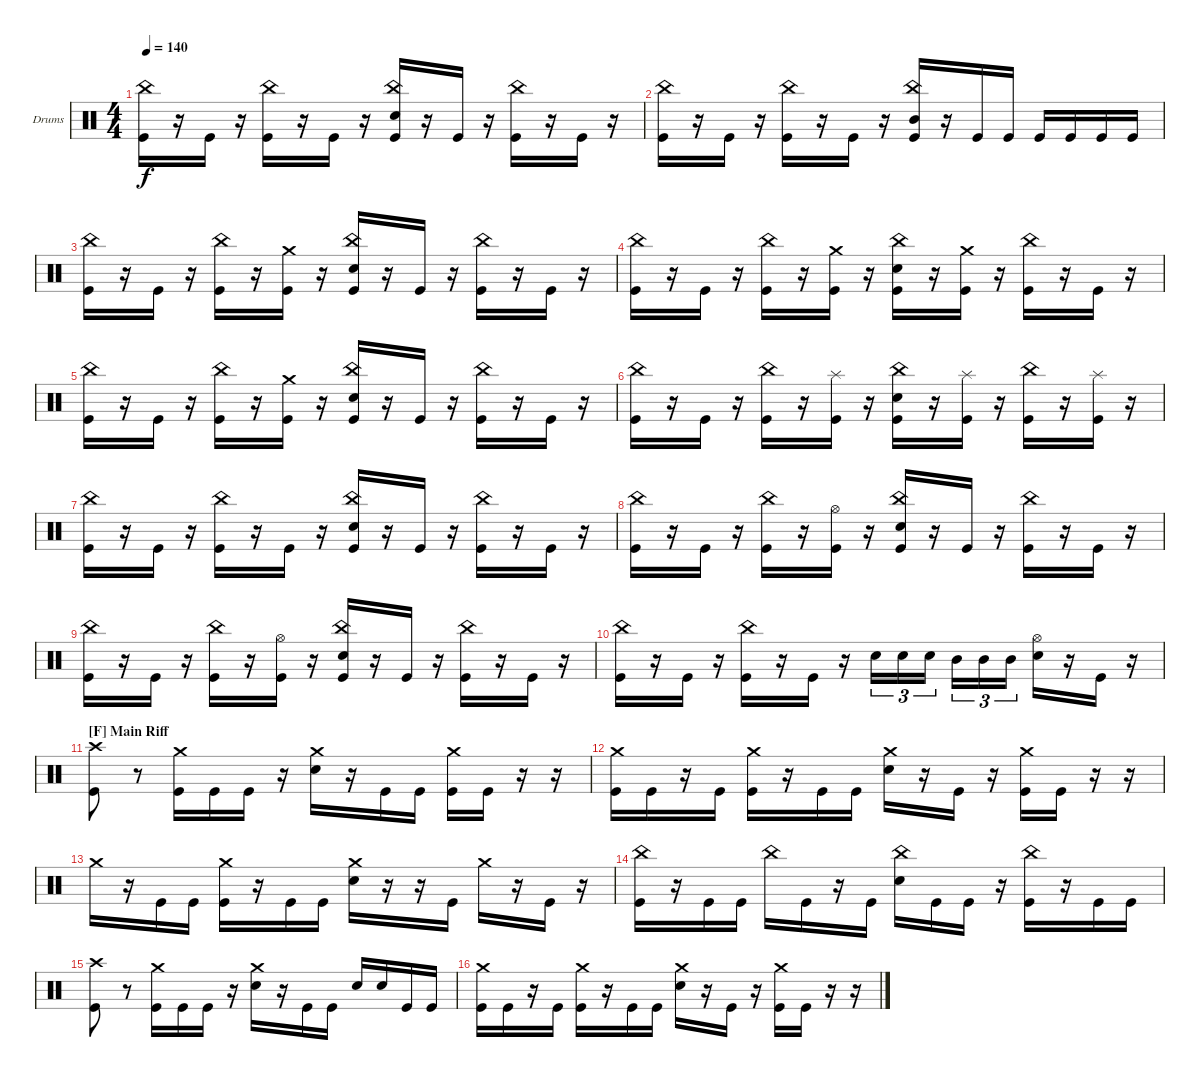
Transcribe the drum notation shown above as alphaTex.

\bracketExtendMode groupsimilarinstruments
\firstSystemTrackNameOrientation horizontal
\otherSystemsTrackNameOrientation horizontal
\track ("Drumkit" "Drums") {instrument percussion}
\staff {score}
\articulation defaults
\ts (4 4)
\tempo 140
\clef neutral
\ks c
("Kick (hit)" "China (hit)").16{dy f} r.16 "Kick (hit)".16 r.16 ("Kick (hit)" "China (hit)").16 r.16 "Kick (hit)".16 r.16 ("Kick (hit)" "China (hit)" "Snare (hit) 2").16 r.16 "Kick (hit)".16 r.16 ("Kick (hit)" "China (hit)").16 r.16 "Kick (hit)".16 r.16 |
("Kick (hit)" "China (hit)").16 r.16 "Kick (hit)".16 r.16 ("Kick (hit)" "China (hit)").16 r.16 "Kick (hit)".16 r.16 ("Kick (hit)" "China (hit)" "Mid Tom (hit)").16 r.16 "Kick (hit)".16 "Kick (hit)".16 "Kick (hit)".16 "Kick (hit)".16 "Kick (hit)".16 "Kick (hit)".16 |
("Kick (hit)" "China (hit)").16 r.16 "Kick (hit)".16 r.16 ("Kick (hit)" "China (hit)").16 r.16 ("Kick (hit)" "Crash medium (hit)").16 r.16 ("Kick (hit)" "China (hit)" "Snare (hit) 2").16 r.16 "Kick (hit)".16 r.16 ("Kick (hit)" "China (hit)").16 r.16 "Kick (hit)".16 r.16 |
("Kick (hit)" "China (hit)").16 r.16 "Kick (hit)".16 r.16 ("Kick (hit)" "China (hit)").16 r.16 ("Kick (hit)" "Crash medium (hit)").16 r.16 ("Kick (hit)" "China (hit)" "Snare (hit) 2").16 r.16 ("Kick (hit)" "Crash medium (hit)").16 r.16 ("Kick (hit)" "China (hit)").16 r.16 "Kick (hit)".16 r.16 |
("Kick (hit)" "China (hit)").16 r.16 "Kick (hit)".16 r.16 ("Kick (hit)" "China (hit)").16 r.16 ("Kick (hit)" "Crash medium (hit)").16 r.16 ("Kick (hit)" "China (hit)" "Snare (hit) 2").16 r.16 "Kick (hit)".16 r.16 ("Kick (hit)" "China (hit)").16 r.16 "Kick (hit)".16 r.16 |
("Kick (hit)" "China (hit)").16 r.16 "Kick (hit)".16 r.16 ("Kick (hit)" "China (hit)").16 r.16 ("Kick (hit)" "Splash (hit)").16 r.16 ("Kick (hit)" "China (hit)" "Snare (hit) 2").16 r.16 ("Kick (hit)" "Splash (hit)").16 r.16 ("Kick (hit)" "China (hit)").16 r.16 ("Kick (hit)" "Splash (hit)").16 r.16 |
("Kick (hit)" "China (hit)").16 r.16 "Kick (hit)".16 r.16 ("Kick (hit)" "China (hit)").16 r.16 "Kick (hit)".16 r.16 ("Kick (hit)" "China (hit)" "Snare (hit) 2").16 r.16 "Kick (hit)".16 r.16 ("Kick (hit)" "China (hit)").16 r.16 "Kick (hit)".16 r.16 |
("Kick (hit)" "China (hit)").16 r.16 "Kick (hit)".16 r.16 ("Kick (hit)" "China (hit)").16 r.16 ("Kick (hit)" "Hi-Hat (open)").16 r.16 ("Kick (hit)" "China (hit)" "Snare (hit) 2").16 r.16 "Kick (hit)".16 r.16 ("Kick (hit)" "China (hit)").16 r.16 "Kick (hit)".16 r.16 |
("Kick (hit)" "China (hit)").16 r.16 "Kick (hit)".16 r.16 ("Kick (hit)" "China (hit)").16 r.16 ("Kick (hit)" "Hi-Hat (open)").16 r.16 ("Kick (hit)" "China (hit)" "Snare (hit) 2").16 r.16 "Kick (hit)".16 r.16 ("Kick (hit)" "China (hit)").16 r.16 "Kick (hit)".16 r.16 |
("Kick (hit)" "China (hit)").16 r.16 "Kick (hit)".16 r.16 ("Kick (hit)" "China (hit)").16 r.16 "Kick (hit)".16 r.16 "Snare (hit) 2".16{tu (3 2)} "Snare (hit) 2".16{tu (3 2)} "Snare (hit) 2".16{tu (3 2)} "Mid Tom (hit)".16{tu (3 2)} "Mid Tom (hit)".16{tu (3 2)} "Mid Tom (hit)".16{tu (3 2)} ("Snare (hit) 2" "Hi-Hat (open)").16 r.16 "Kick (hit)".16 r.16 |
\section ("F" "Main Riff")
("Kick (hit)" "Crash high (hit)").8 r.8 ("Kick (hit)" "Crash medium (hit)").16 "Kick (hit)".16 "Kick (hit)".16 r.16 ("Snare (hit) 2" "Crash medium (hit)").16 r.16 "Kick (hit)".16 "Kick (hit)".16 ("Kick (hit)" "Crash medium (hit)").16 "Kick (hit)".16 r.16 r.16 |
("Kick (hit)" "Crash medium (hit)").16 "Kick (hit)".16 r.16 "Kick (hit)".16 ("Kick (hit)" "Crash medium (hit)").16 r.16 "Kick (hit)".16 "Kick (hit)".16 ("Snare (hit) 2" "Crash medium (hit)").16 r.16 "Kick (hit)".16 r.16 ("Kick (hit)" "Crash medium (hit)").16 "Kick (hit)".16 r.16 r.16 |
"Crash medium (hit)".16 r.16 "Kick (hit)".16 "Kick (hit)".16 ("Kick (hit)" "Crash medium (hit)").16 r.16 "Kick (hit)".16 "Kick (hit)".16 ("Snare (hit) 2" "Crash medium (hit)").16 r.16 r.16 "Kick (hit)".16 "Crash medium (hit)".16 r.16 "Kick (hit)".16 r.16 |
("Kick (hit)" "China (hit)").16 r.16 "Kick (hit)".16 "Kick (hit)".16 "China (hit)".16 "Kick (hit)".16 r.16 "Kick (hit)".16 ("Snare (hit) 2" "China (hit)").16 "Kick (hit)".16 "Kick (hit)".16 r.16 ("Kick (hit)" "China (hit)").16 r.16 "Kick (hit)".16 "Kick (hit)".16 |
("Kick (hit)" "Crash high (hit)").8 r.8 ("Kick (hit)" "Crash medium (hit)").16 "Kick (hit)".16 "Kick (hit)".16 r.16 ("Snare (hit) 2" "Crash medium (hit)").16 r.16 "Kick (hit)".16 "Kick (hit)".16 "Snare (hit) 2".16 "Snare (hit) 2".16 "Kick (hit)".16 "Kick (hit)".16 |
("Kick (hit)" "Crash medium (hit)").16 "Kick (hit)".16 r.16 "Kick (hit)".16 ("Kick (hit)" "Crash medium (hit)").16 r.16 "Kick (hit)".16 "Kick (hit)".16 ("Snare (hit) 2" "Crash medium (hit)").16 r.16 "Kick (hit)".16 r.16 ("Kick (hit)" "Crash medium (hit)").16 "Kick (hit)".16 r.16 r.16
